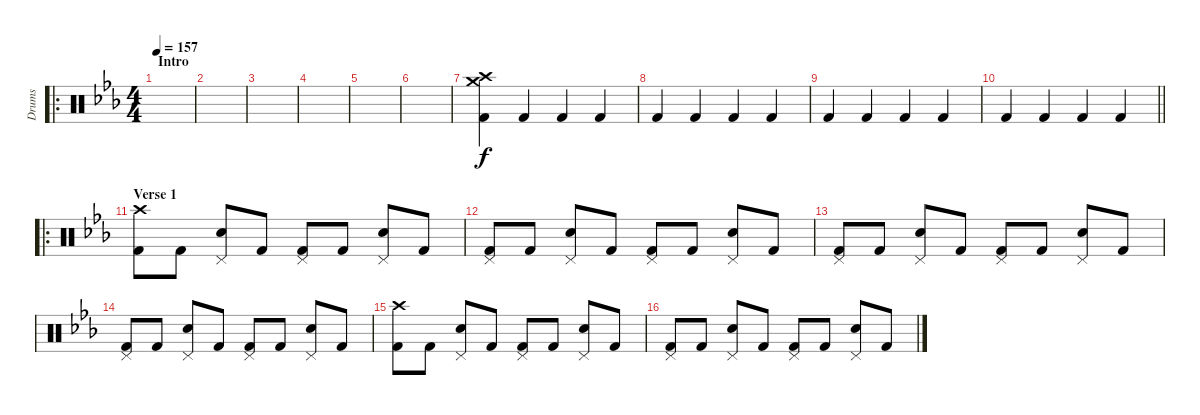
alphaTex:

\track ("Drums" "Drums") {instrument percussion}
\staff {score}
\articulation defaults
\ro
\ts (4 4)
\section ("" "Intro")
\tempo 157
\clef neutral
\ks cminor
|
|
|
|
|
|
("Crash high (hit)" "Crash medium (hit)" "Kick (hit) 2").4 "Kick (hit) 2".4 "Kick (hit) 2".4 "Kick (hit) 2".4 |
"Kick (hit) 2".4 "Kick (hit) 2".4 "Kick (hit) 2".4 "Kick (hit) 2".4 |
"Kick (hit) 2".4 "Kick (hit) 2".4 "Kick (hit) 2".4 "Kick (hit) 2".4 |
\barLineRight lightlight "Kick (hit) 2".4 "Kick (hit) 2".4 "Kick (hit) 2".4 "Kick (hit) 2".4
|
\ro
\section ("" "Verse 1")
("Crash high (hit)" "Kick (hit) 2").8 "Kick (hit) 2".8 ("Pedal Hi-Hat (hit)" "Electric Snare (hit)").8 "Kick (hit) 2".8 ("Pedal Hi-Hat (hit)" "Kick (hit) 2").8 "Kick (hit) 2".8 ("Pedal Hi-Hat (hit)" "Electric Snare (hit)").8 "Kick (hit) 2".8 |
("Pedal Hi-Hat (hit)" "Kick (hit) 2").8 "Kick (hit) 2".8 ("Pedal Hi-Hat (hit)" "Electric Snare (hit)").8 "Kick (hit) 2".8 ("Pedal Hi-Hat (hit)" "Kick (hit) 2").8 "Kick (hit) 2".8 ("Pedal Hi-Hat (hit)" "Electric Snare (hit)").8 "Kick (hit) 2".8 |
("Pedal Hi-Hat (hit)" "Kick (hit) 2").8 "Kick (hit) 2".8 ("Pedal Hi-Hat (hit)" "Electric Snare (hit)").8 "Kick (hit) 2".8 ("Pedal Hi-Hat (hit)" "Kick (hit) 2").8 "Kick (hit) 2".8 ("Pedal Hi-Hat (hit)" "Electric Snare (hit)").8 "Kick (hit) 2".8 |
("Pedal Hi-Hat (hit)" "Kick (hit) 2").8 "Kick (hit) 2".8 ("Pedal Hi-Hat (hit)" "Electric Snare (hit)").8 "Kick (hit) 2".8 ("Pedal Hi-Hat (hit)" "Kick (hit) 2").8 "Kick (hit) 2".8 ("Pedal Hi-Hat (hit)" "Electric Snare (hit)").8 "Kick (hit) 2".8 |
("Crash high (hit)" "Kick (hit) 2").8 "Kick (hit) 2".8 ("Pedal Hi-Hat (hit)" "Electric Snare (hit)").8 "Kick (hit) 2".8 ("Pedal Hi-Hat (hit)" "Kick (hit) 2").8 "Kick (hit) 2".8 ("Pedal Hi-Hat (hit)" "Electric Snare (hit)").8 "Kick (hit) 2".8 |
("Pedal Hi-Hat (hit)" "Kick (hit) 2").8 "Kick (hit) 2".8 ("Pedal Hi-Hat (hit)" "Electric Snare (hit)").8 "Kick (hit) 2".8 ("Pedal Hi-Hat (hit)" "Kick (hit) 2").8 "Kick (hit) 2".8 ("Pedal Hi-Hat (hit)" "Electric Snare (hit)").8 "Kick (hit) 2".8
